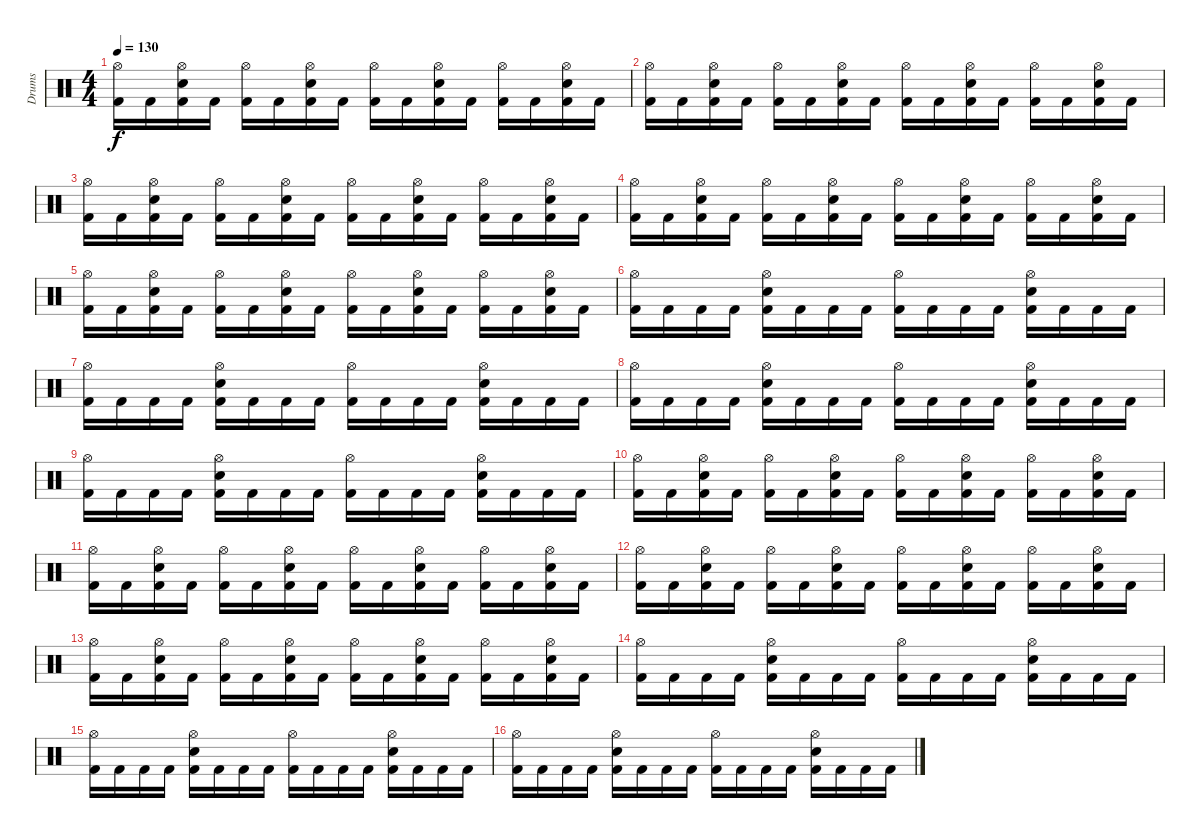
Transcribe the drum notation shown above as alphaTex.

\track ("Drums" "Drums") {instrument percussion}
\staff {score}
\articulation defaults
\ts (4 4)
\tempo 130
\clef neutral
\ks c
("Hi-Hat (open)" "Kick (hit) 2").16{dy f} "Kick (hit) 2".16 ("Hi-Hat (open)" "Electric Snare (hit)" "Kick (hit) 2").16 "Kick (hit) 2".16 ("Hi-Hat (open)" "Kick (hit) 2").16 "Kick (hit) 2".16 ("Hi-Hat (open)" "Electric Snare (hit)" "Kick (hit) 2").16 "Kick (hit) 2".16 ("Hi-Hat (open)" "Kick (hit) 2").16 "Kick (hit) 2".16 ("Hi-Hat (open)" "Electric Snare (hit)" "Kick (hit) 2").16 "Kick (hit) 2".16 ("Hi-Hat (open)" "Kick (hit) 2").16 "Kick (hit) 2".16 ("Hi-Hat (open)" "Electric Snare (hit)" "Kick (hit) 2").16 "Kick (hit) 2".16 |
("Hi-Hat (open)" "Kick (hit) 2").16 "Kick (hit) 2".16 ("Hi-Hat (open)" "Electric Snare (hit)" "Kick (hit) 2").16 "Kick (hit) 2".16 ("Hi-Hat (open)" "Kick (hit) 2").16 "Kick (hit) 2".16 ("Hi-Hat (open)" "Electric Snare (hit)" "Kick (hit) 2").16 "Kick (hit) 2".16 ("Hi-Hat (open)" "Kick (hit) 2").16 "Kick (hit) 2".16 ("Hi-Hat (open)" "Electric Snare (hit)" "Kick (hit) 2").16 "Kick (hit) 2".16 ("Hi-Hat (open)" "Kick (hit) 2").16 "Kick (hit) 2".16 ("Hi-Hat (open)" "Electric Snare (hit)" "Kick (hit) 2").16 "Kick (hit) 2".16 |
("Hi-Hat (open)" "Kick (hit) 2").16 "Kick (hit) 2".16 ("Hi-Hat (open)" "Electric Snare (hit)" "Kick (hit) 2").16 "Kick (hit) 2".16 ("Hi-Hat (open)" "Kick (hit) 2").16 "Kick (hit) 2".16 ("Hi-Hat (open)" "Electric Snare (hit)" "Kick (hit) 2").16 "Kick (hit) 2".16 ("Hi-Hat (open)" "Kick (hit) 2").16 "Kick (hit) 2".16 ("Hi-Hat (open)" "Electric Snare (hit)" "Kick (hit) 2").16 "Kick (hit) 2".16 ("Hi-Hat (open)" "Kick (hit) 2").16 "Kick (hit) 2".16 ("Hi-Hat (open)" "Electric Snare (hit)" "Kick (hit) 2").16 "Kick (hit) 2".16 |
("Hi-Hat (open)" "Kick (hit) 2").16 "Kick (hit) 2".16 ("Hi-Hat (open)" "Electric Snare (hit)" "Kick (hit) 2").16 "Kick (hit) 2".16 ("Hi-Hat (open)" "Kick (hit) 2").16 "Kick (hit) 2".16 ("Hi-Hat (open)" "Electric Snare (hit)" "Kick (hit) 2").16 "Kick (hit) 2".16 ("Hi-Hat (open)" "Kick (hit) 2").16 "Kick (hit) 2".16 ("Hi-Hat (open)" "Electric Snare (hit)" "Kick (hit) 2").16 "Kick (hit) 2".16 ("Hi-Hat (open)" "Kick (hit) 2").16 "Kick (hit) 2".16 ("Hi-Hat (open)" "Electric Snare (hit)" "Kick (hit) 2").16 "Kick (hit) 2".16 |
("Hi-Hat (open)" "Kick (hit) 2").16 "Kick (hit) 2".16 ("Hi-Hat (open)" "Electric Snare (hit)" "Kick (hit) 2").16 "Kick (hit) 2".16 ("Hi-Hat (open)" "Kick (hit) 2").16 "Kick (hit) 2".16 ("Hi-Hat (open)" "Electric Snare (hit)" "Kick (hit) 2").16 "Kick (hit) 2".16 ("Hi-Hat (open)" "Kick (hit) 2").16 "Kick (hit) 2".16 ("Hi-Hat (open)" "Electric Snare (hit)" "Kick (hit) 2").16 "Kick (hit) 2".16 ("Hi-Hat (open)" "Kick (hit) 2").16 "Kick (hit) 2".16 ("Hi-Hat (open)" "Electric Snare (hit)" "Kick (hit) 2").16 "Kick (hit) 2".16 |
("Hi-Hat (open)" "Kick (hit) 2").16 "Kick (hit) 2".16 "Kick (hit) 2".16 "Kick (hit) 2".16 ("Hi-Hat (open)" "Electric Snare (hit)" "Kick (hit) 2").16 "Kick (hit) 2".16 "Kick (hit) 2".16 "Kick (hit) 2".16 ("Hi-Hat (open)" "Kick (hit) 2").16 "Kick (hit) 2".16 "Kick (hit) 2".16 "Kick (hit) 2".16 ("Hi-Hat (open)" "Electric Snare (hit)" "Kick (hit) 2").16 "Kick (hit) 2".16 "Kick (hit) 2".16 "Kick (hit) 2".16 |
("Hi-Hat (open)" "Kick (hit) 2").16 "Kick (hit) 2".16 "Kick (hit) 2".16 "Kick (hit) 2".16 ("Hi-Hat (open)" "Electric Snare (hit)" "Kick (hit) 2").16 "Kick (hit) 2".16 "Kick (hit) 2".16 "Kick (hit) 2".16 ("Hi-Hat (open)" "Kick (hit) 2").16 "Kick (hit) 2".16 "Kick (hit) 2".16 "Kick (hit) 2".16 ("Hi-Hat (open)" "Electric Snare (hit)" "Kick (hit) 2").16 "Kick (hit) 2".16 "Kick (hit) 2".16 "Kick (hit) 2".16 |
("Hi-Hat (open)" "Kick (hit) 2").16 "Kick (hit) 2".16 "Kick (hit) 2".16 "Kick (hit) 2".16 ("Hi-Hat (open)" "Electric Snare (hit)" "Kick (hit) 2").16 "Kick (hit) 2".16 "Kick (hit) 2".16 "Kick (hit) 2".16 ("Hi-Hat (open)" "Kick (hit) 2").16 "Kick (hit) 2".16 "Kick (hit) 2".16 "Kick (hit) 2".16 ("Hi-Hat (open)" "Electric Snare (hit)" "Kick (hit) 2").16 "Kick (hit) 2".16 "Kick (hit) 2".16 "Kick (hit) 2".16 |
("Hi-Hat (open)" "Kick (hit) 2").16 "Kick (hit) 2".16 "Kick (hit) 2".16 "Kick (hit) 2".16 ("Hi-Hat (open)" "Electric Snare (hit)" "Kick (hit) 2").16 "Kick (hit) 2".16 "Kick (hit) 2".16 "Kick (hit) 2".16 ("Hi-Hat (open)" "Kick (hit) 2").16 "Kick (hit) 2".16 "Kick (hit) 2".16 "Kick (hit) 2".16 ("Hi-Hat (open)" "Electric Snare (hit)" "Kick (hit) 2").16 "Kick (hit) 2".16 "Kick (hit) 2".16 "Kick (hit) 2".16 |
("Hi-Hat (open)" "Kick (hit) 2").16 "Kick (hit) 2".16 ("Hi-Hat (open)" "Electric Snare (hit)" "Kick (hit) 2").16 "Kick (hit) 2".16 ("Hi-Hat (open)" "Kick (hit) 2").16 "Kick (hit) 2".16 ("Hi-Hat (open)" "Electric Snare (hit)" "Kick (hit) 2").16 "Kick (hit) 2".16 ("Hi-Hat (open)" "Kick (hit) 2").16 "Kick (hit) 2".16 ("Hi-Hat (open)" "Electric Snare (hit)" "Kick (hit) 2").16 "Kick (hit) 2".16 ("Hi-Hat (open)" "Kick (hit) 2").16 "Kick (hit) 2".16 ("Hi-Hat (open)" "Electric Snare (hit)" "Kick (hit) 2").16 "Kick (hit) 2".16 |
("Hi-Hat (open)" "Kick (hit) 2").16 "Kick (hit) 2".16 ("Hi-Hat (open)" "Electric Snare (hit)" "Kick (hit) 2").16 "Kick (hit) 2".16 ("Hi-Hat (open)" "Kick (hit) 2").16 "Kick (hit) 2".16 ("Hi-Hat (open)" "Electric Snare (hit)" "Kick (hit) 2").16 "Kick (hit) 2".16 ("Hi-Hat (open)" "Kick (hit) 2").16 "Kick (hit) 2".16 ("Hi-Hat (open)" "Electric Snare (hit)" "Kick (hit) 2").16 "Kick (hit) 2".16 ("Hi-Hat (open)" "Kick (hit) 2").16 "Kick (hit) 2".16 ("Hi-Hat (open)" "Electric Snare (hit)" "Kick (hit) 2").16 "Kick (hit) 2".16 |
("Hi-Hat (open)" "Kick (hit) 2").16 "Kick (hit) 2".16 ("Hi-Hat (open)" "Electric Snare (hit)" "Kick (hit) 2").16 "Kick (hit) 2".16 ("Hi-Hat (open)" "Kick (hit) 2").16 "Kick (hit) 2".16 ("Hi-Hat (open)" "Electric Snare (hit)" "Kick (hit) 2").16 "Kick (hit) 2".16 ("Hi-Hat (open)" "Kick (hit) 2").16 "Kick (hit) 2".16 ("Hi-Hat (open)" "Electric Snare (hit)" "Kick (hit) 2").16 "Kick (hit) 2".16 ("Hi-Hat (open)" "Kick (hit) 2").16 "Kick (hit) 2".16 ("Hi-Hat (open)" "Electric Snare (hit)" "Kick (hit) 2").16 "Kick (hit) 2".16 |
("Hi-Hat (open)" "Kick (hit) 2").16 "Kick (hit) 2".16 ("Hi-Hat (open)" "Electric Snare (hit)" "Kick (hit) 2").16 "Kick (hit) 2".16 ("Hi-Hat (open)" "Kick (hit) 2").16 "Kick (hit) 2".16 ("Hi-Hat (open)" "Electric Snare (hit)" "Kick (hit) 2").16 "Kick (hit) 2".16 ("Hi-Hat (open)" "Kick (hit) 2").16 "Kick (hit) 2".16 ("Hi-Hat (open)" "Electric Snare (hit)" "Kick (hit) 2").16 "Kick (hit) 2".16 ("Hi-Hat (open)" "Kick (hit) 2").16 "Kick (hit) 2".16 ("Hi-Hat (open)" "Electric Snare (hit)" "Kick (hit) 2").16 "Kick (hit) 2".16 |
("Hi-Hat (open)" "Kick (hit) 2").16 "Kick (hit) 2".16 "Kick (hit) 2".16 "Kick (hit) 2".16 ("Hi-Hat (open)" "Electric Snare (hit)" "Kick (hit) 2").16 "Kick (hit) 2".16 "Kick (hit) 2".16 "Kick (hit) 2".16 ("Hi-Hat (open)" "Kick (hit) 2").16 "Kick (hit) 2".16 "Kick (hit) 2".16 "Kick (hit) 2".16 ("Hi-Hat (open)" "Electric Snare (hit)" "Kick (hit) 2").16 "Kick (hit) 2".16 "Kick (hit) 2".16 "Kick (hit) 2".16 |
("Hi-Hat (open)" "Kick (hit) 2").16 "Kick (hit) 2".16 "Kick (hit) 2".16 "Kick (hit) 2".16 ("Hi-Hat (open)" "Electric Snare (hit)" "Kick (hit) 2").16 "Kick (hit) 2".16 "Kick (hit) 2".16 "Kick (hit) 2".16 ("Hi-Hat (open)" "Kick (hit) 2").16 "Kick (hit) 2".16 "Kick (hit) 2".16 "Kick (hit) 2".16 ("Hi-Hat (open)" "Electric Snare (hit)" "Kick (hit) 2").16 "Kick (hit) 2".16 "Kick (hit) 2".16 "Kick (hit) 2".16 |
("Hi-Hat (open)" "Kick (hit) 2").16 "Kick (hit) 2".16 "Kick (hit) 2".16 "Kick (hit) 2".16 ("Hi-Hat (open)" "Electric Snare (hit)" "Kick (hit) 2").16 "Kick (hit) 2".16 "Kick (hit) 2".16 "Kick (hit) 2".16 ("Hi-Hat (open)" "Kick (hit) 2").16 "Kick (hit) 2".16 "Kick (hit) 2".16 "Kick (hit) 2".16 ("Hi-Hat (open)" "Electric Snare (hit)" "Kick (hit) 2").16 "Kick (hit) 2".16 "Kick (hit) 2".16 "Kick (hit) 2".16
